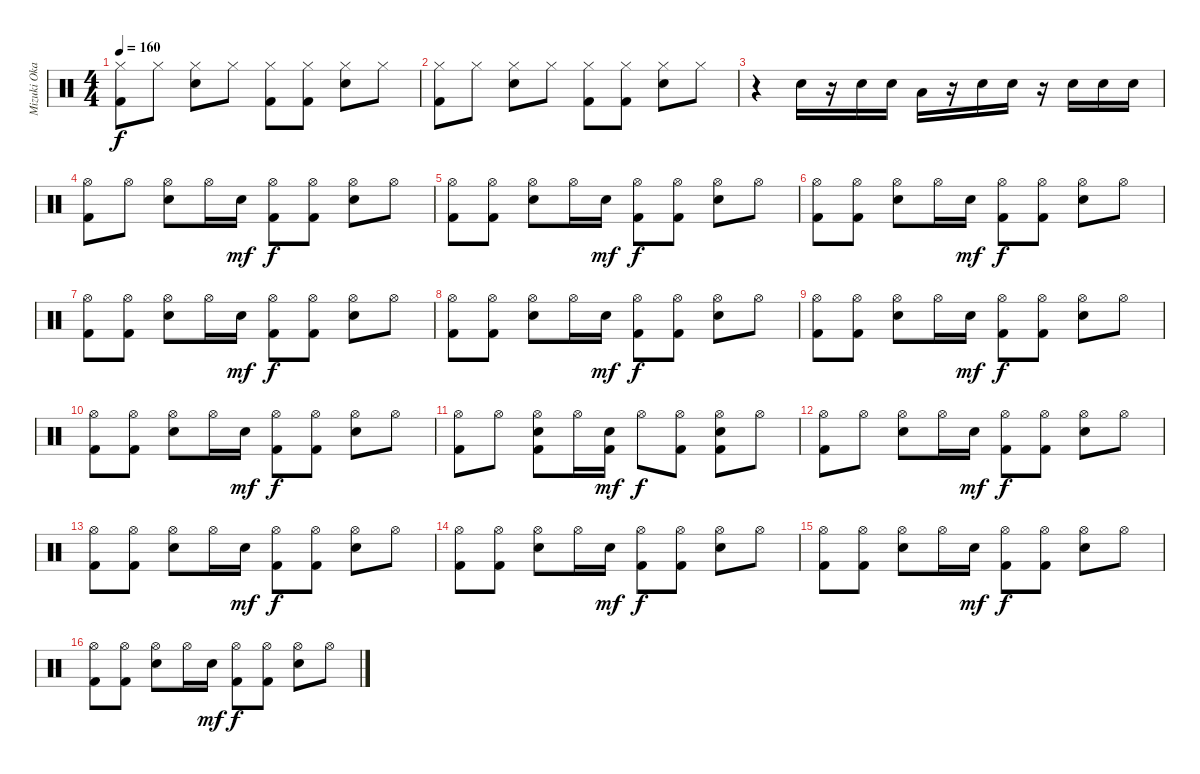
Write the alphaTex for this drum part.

\track ("Mizuki Okajima (Drums)" "Mizuki Oka") {instrument percussion}
\staff {score}
\articulation defaults
\ts (4 4)
\tempo 160
\clef neutral
\ks c
("Hi-Hat (closed)" "Kick (hit) 2").8{dy f} "Hi-Hat (closed)".8 ("Hi-Hat (closed)" "Snare (hit) 2").8 "Hi-Hat (closed)".8 ("Hi-Hat (closed)" "Kick (hit) 2").8 ("Hi-Hat (closed)" "Kick (hit) 2").8 ("Hi-Hat (closed)" "Snare (hit) 2").8 "Hi-Hat (closed)".8 |
("Hi-Hat (closed)" "Kick (hit) 2").8 "Hi-Hat (closed)".8 ("Hi-Hat (closed)" "Snare (hit) 2").8 "Hi-Hat (closed)".8 ("Hi-Hat (closed)" "Kick (hit) 2").8 ("Hi-Hat (closed)" "Kick (hit) 2").8 ("Hi-Hat (closed)" "Snare (hit) 2").8 "Hi-Hat (closed)".8 |
r.4 "Snare (hit) 2".16 r.16 "Snare (hit) 2".16 "Snare (hit) 2".16 "Low Tom (hit)".16 r.16 "Snare (hit) 2".16 "Snare (hit) 2".16 r.16 "Snare (hit) 2".16 "Snare (hit) 2".16 "Snare (hit) 2".16 |
("Hi-Hat (open)" "Kick (hit) 2").8 "Hi-Hat (open)".8 ("Hi-Hat (open)" "Snare (hit) 2").8 "Hi-Hat (open)".16 "Snare (hit) 2".16{dy mf} ("Hi-Hat (open)" "Kick (hit) 2").8{dy f} ("Hi-Hat (open)" "Kick (hit) 2").8 ("Hi-Hat (open)" "Snare (hit) 2").8 "Hi-Hat (open)".8 |
("Hi-Hat (open)" "Kick (hit) 2").8 ("Hi-Hat (open)" "Kick (hit) 2").8 ("Hi-Hat (open)" "Snare (hit) 2").8 "Hi-Hat (open)".16 "Snare (hit) 2".16{dy mf} ("Hi-Hat (open)" "Kick (hit) 2").8{dy f} ("Hi-Hat (open)" "Kick (hit) 2").8 ("Hi-Hat (open)" "Snare (hit) 2").8 "Hi-Hat (open)".8 |
("Hi-Hat (open)" "Kick (hit) 2").8 ("Hi-Hat (open)" "Kick (hit) 2").8 ("Hi-Hat (open)" "Snare (hit) 2").8 "Hi-Hat (open)".16 "Snare (hit) 2".16{dy mf} ("Hi-Hat (open)" "Kick (hit) 2").8{dy f} ("Hi-Hat (open)" "Kick (hit) 2").8 ("Hi-Hat (open)" "Snare (hit) 2").8 "Hi-Hat (open)".8 |
("Hi-Hat (open)" "Kick (hit) 2").8 ("Hi-Hat (open)" "Kick (hit) 2").8 ("Hi-Hat (open)" "Snare (hit) 2").8 "Hi-Hat (open)".16 "Snare (hit) 2".16{dy mf} ("Hi-Hat (open)" "Kick (hit) 2").8{dy f} ("Hi-Hat (open)" "Kick (hit) 2").8 ("Hi-Hat (open)" "Snare (hit) 2").8 "Hi-Hat (open)".8 |
("Hi-Hat (open)" "Kick (hit) 2").8 ("Hi-Hat (open)" "Kick (hit) 2").8 ("Hi-Hat (open)" "Snare (hit) 2").8 "Hi-Hat (open)".16 "Snare (hit) 2".16{dy mf} ("Hi-Hat (open)" "Kick (hit) 2").8{dy f} ("Hi-Hat (open)" "Kick (hit) 2").8 ("Hi-Hat (open)" "Snare (hit) 2").8 "Hi-Hat (open)".8 |
("Hi-Hat (open)" "Kick (hit) 2").8 ("Hi-Hat (open)" "Kick (hit) 2").8 ("Hi-Hat (open)" "Snare (hit) 2").8 "Hi-Hat (open)".16 "Snare (hit) 2".16{dy mf} ("Hi-Hat (open)" "Kick (hit) 2").8{dy f} ("Hi-Hat (open)" "Kick (hit) 2").8 ("Hi-Hat (open)" "Snare (hit) 2").8 "Hi-Hat (open)".8 |
("Hi-Hat (open)" "Kick (hit) 2").8 ("Hi-Hat (open)" "Kick (hit) 2").8 ("Hi-Hat (open)" "Snare (hit) 2").8 "Hi-Hat (open)".16 "Snare (hit) 2".16{dy mf} ("Hi-Hat (open)" "Kick (hit) 2").8{dy f} ("Hi-Hat (open)" "Kick (hit) 2").8 ("Hi-Hat (open)" "Snare (hit) 2").8 "Hi-Hat (open)".8 |
("Hi-Hat (open)" "Kick (hit) 2").8 "Hi-Hat (open)".8 ("Hi-Hat (open)" "Snare (hit) 2" "Kick (hit) 2").8 "Hi-Hat (open)".16 ("Snare (hit) 2" "Kick (hit) 2").16{dy mf} "Hi-Hat (open)".8{dy f} ("Hi-Hat (open)" "Kick (hit) 2").8 ("Hi-Hat (open)" "Snare (hit) 2" "Kick (hit) 2").8 "Hi-Hat (open)".8 |
("Hi-Hat (open)" "Kick (hit) 2").8 "Hi-Hat (open)".8 ("Hi-Hat (open)" "Snare (hit) 2").8 "Hi-Hat (open)".16 "Snare (hit) 2".16{dy mf} ("Hi-Hat (open)" "Kick (hit) 2").8{dy f} ("Hi-Hat (open)" "Kick (hit) 2").8 ("Hi-Hat (open)" "Snare (hit) 2").8 "Hi-Hat (open)".8 |
("Hi-Hat (open)" "Kick (hit) 2").8 ("Hi-Hat (open)" "Kick (hit) 2").8 ("Hi-Hat (open)" "Snare (hit) 2").8 "Hi-Hat (open)".16 "Snare (hit) 2".16{dy mf} ("Hi-Hat (open)" "Kick (hit) 2").8{dy f} ("Hi-Hat (open)" "Kick (hit) 2").8 ("Hi-Hat (open)" "Snare (hit) 2").8 "Hi-Hat (open)".8 |
("Hi-Hat (open)" "Kick (hit) 2").8 ("Hi-Hat (open)" "Kick (hit) 2").8 ("Hi-Hat (open)" "Snare (hit) 2").8 "Hi-Hat (open)".16 "Snare (hit) 2".16{dy mf} ("Hi-Hat (open)" "Kick (hit) 2").8{dy f} ("Hi-Hat (open)" "Kick (hit) 2").8 ("Hi-Hat (open)" "Snare (hit) 2").8 "Hi-Hat (open)".8 |
("Hi-Hat (open)" "Kick (hit) 2").8 ("Hi-Hat (open)" "Kick (hit) 2").8 ("Hi-Hat (open)" "Snare (hit) 2").8 "Hi-Hat (open)".16 "Snare (hit) 2".16{dy mf} ("Hi-Hat (open)" "Kick (hit) 2").8{dy f} ("Hi-Hat (open)" "Kick (hit) 2").8 ("Hi-Hat (open)" "Snare (hit) 2").8 "Hi-Hat (open)".8 |
("Hi-Hat (open)" "Kick (hit) 2").8 ("Hi-Hat (open)" "Kick (hit) 2").8 ("Hi-Hat (open)" "Snare (hit) 2").8 "Hi-Hat (open)".16 "Snare (hit) 2".16{dy mf} ("Hi-Hat (open)" "Kick (hit) 2").8{dy f} ("Hi-Hat (open)" "Kick (hit) 2").8 ("Hi-Hat (open)" "Snare (hit) 2").8 "Hi-Hat (open)".8
